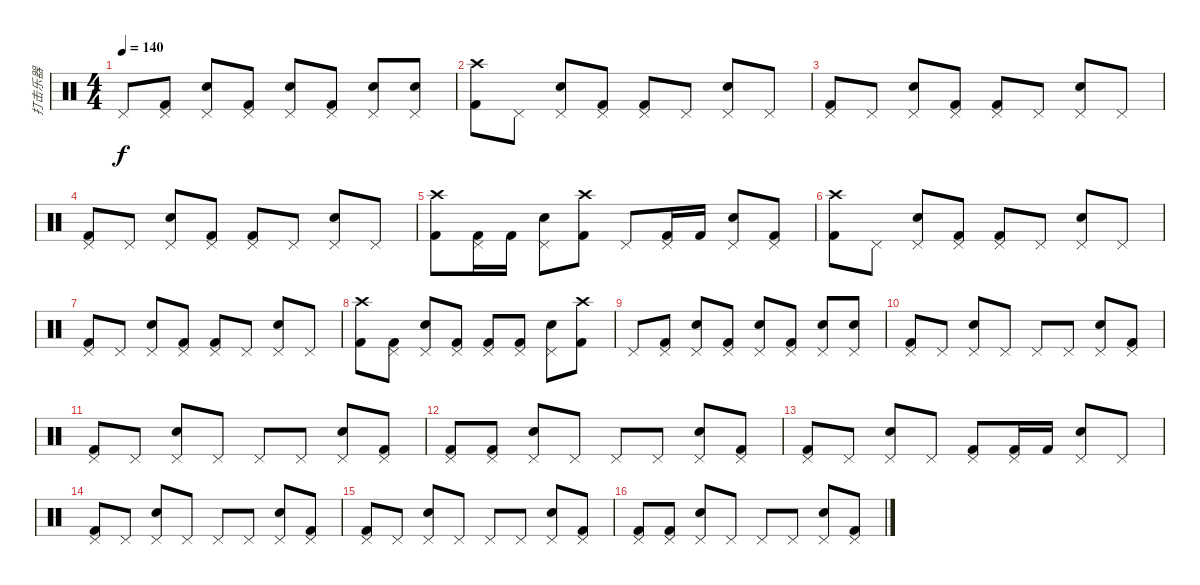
\track ("打击乐器" "打击乐器") {instrument percussion}
\staff {score}
\articulation defaults
\ts (4 4)
\tempo 140
\clef neutral
\ks c "Pedal Hi-Hat (hit)".8{dy f}
("Pedal Hi-Hat (hit)" "Kick (hit) 2").8 ("Pedal Hi-Hat (hit)" "Electric Snare (hit)").8 ("Pedal Hi-Hat (hit)" "Kick (hit) 2").8 ("Pedal Hi-Hat (hit)" "Electric Snare (hit)").8 ("Pedal Hi-Hat (hit)" "Kick (hit) 2").8 ("Pedal Hi-Hat (hit)" "Electric Snare (hit)").8 ("Pedal Hi-Hat (hit)" "Electric Snare (hit)").8 |
("Crash high (hit)" "Kick (hit) 2").8 "Pedal Hi-Hat (hit)".8 ("Pedal Hi-Hat (hit)" "Electric Snare (hit)").8 ("Pedal Hi-Hat (hit)" "Kick (hit) 2").8 ("Pedal Hi-Hat (hit)" "Kick (hit) 2").8 "Pedal Hi-Hat (hit)".8 ("Pedal Hi-Hat (hit)" "Electric Snare (hit)").8 "Pedal Hi-Hat (hit)".8 |
("Pedal Hi-Hat (hit)" "Kick (hit) 2").8 "Pedal Hi-Hat (hit)".8 ("Pedal Hi-Hat (hit)" "Electric Snare (hit)").8 ("Pedal Hi-Hat (hit)" "Kick (hit) 2").8 ("Pedal Hi-Hat (hit)" "Kick (hit) 2").8 "Pedal Hi-Hat (hit)".8 ("Pedal Hi-Hat (hit)" "Electric Snare (hit)").8 "Pedal Hi-Hat (hit)".8 |
("Pedal Hi-Hat (hit)" "Kick (hit) 2").8 "Pedal Hi-Hat (hit)".8 ("Pedal Hi-Hat (hit)" "Electric Snare (hit)").8 ("Pedal Hi-Hat (hit)" "Kick (hit) 2").8 ("Pedal Hi-Hat (hit)" "Kick (hit) 2").8 "Pedal Hi-Hat (hit)".8 ("Pedal Hi-Hat (hit)" "Electric Snare (hit)").8 "Pedal Hi-Hat (hit)".8 |
("Crash high (hit)" "Kick (hit) 2").8 ("Pedal Hi-Hat (hit)" "Kick (hit) 2").16 "Kick (hit) 2".16 ("Pedal Hi-Hat (hit)" "Electric Snare (hit)").8 ("Crash high (hit)" "Kick (hit) 2").8 "Pedal Hi-Hat (hit)".8 ("Pedal Hi-Hat (hit)" "Kick (hit) 2").16 "Kick (hit) 2".16 ("Pedal Hi-Hat (hit)" "Electric Snare (hit)").8 ("Pedal Hi-Hat (hit)" "Kick (hit) 2").8 |
("Crash high (hit)" "Kick (hit) 2").8 "Pedal Hi-Hat (hit)".8 ("Pedal Hi-Hat (hit)" "Electric Snare (hit)").8 ("Pedal Hi-Hat (hit)" "Kick (hit) 2").8 ("Pedal Hi-Hat (hit)" "Kick (hit) 2").8 "Pedal Hi-Hat (hit)".8 ("Pedal Hi-Hat (hit)" "Electric Snare (hit)").8 "Pedal Hi-Hat (hit)".8 |
("Pedal Hi-Hat (hit)" "Kick (hit) 2").8 "Pedal Hi-Hat (hit)".8 ("Pedal Hi-Hat (hit)" "Electric Snare (hit)").8 ("Pedal Hi-Hat (hit)" "Kick (hit) 2").8 ("Pedal Hi-Hat (hit)" "Kick (hit) 2").8 "Pedal Hi-Hat (hit)".8 ("Pedal Hi-Hat (hit)" "Electric Snare (hit)").8 "Pedal Hi-Hat (hit)".8 |
("Crash high (hit)" "Kick (hit) 2").8 ("Pedal Hi-Hat (hit)" "Kick (hit) 2").8 ("Pedal Hi-Hat (hit)" "Electric Snare (hit)").8 ("Pedal Hi-Hat (hit)" "Kick (hit) 2").8 ("Pedal Hi-Hat (hit)" "Kick (hit) 2").8 ("Pedal Hi-Hat (hit)" "Kick (hit) 2").8 ("Pedal Hi-Hat (hit)" "Electric Snare (hit)").8 ("Crash high (hit)" "Kick (hit) 2").8 |
"Pedal Hi-Hat (hit)".8 ("Pedal Hi-Hat (hit)" "Kick (hit) 2").8 ("Pedal Hi-Hat (hit)" "Electric Snare (hit)").8 ("Pedal Hi-Hat (hit)" "Kick (hit) 2").8 ("Pedal Hi-Hat (hit)" "Electric Snare (hit)").8 ("Pedal Hi-Hat (hit)" "Kick (hit) 2").8 ("Pedal Hi-Hat (hit)" "Electric Snare (hit)").8 ("Pedal Hi-Hat (hit)" "Electric Snare (hit)").8 |
("Pedal Hi-Hat (hit)" "Kick (hit) 2").8 "Pedal Hi-Hat (hit)".8 ("Pedal Hi-Hat (hit)" "Electric Snare (hit)").8 "Pedal Hi-Hat (hit)".8 "Pedal Hi-Hat (hit)".8 "Pedal Hi-Hat (hit)".8 ("Pedal Hi-Hat (hit)" "Electric Snare (hit)").8 ("Pedal Hi-Hat (hit)" "Kick (hit) 2").8 |
("Pedal Hi-Hat (hit)" "Kick (hit) 2").8 "Pedal Hi-Hat (hit)".8 ("Pedal Hi-Hat (hit)" "Electric Snare (hit)").8 "Pedal Hi-Hat (hit)".8 "Pedal Hi-Hat (hit)".8 "Pedal Hi-Hat (hit)".8 ("Pedal Hi-Hat (hit)" "Electric Snare (hit)").8 ("Pedal Hi-Hat (hit)" "Kick (hit) 2").8 |
("Pedal Hi-Hat (hit)" "Kick (hit) 2").8 ("Pedal Hi-Hat (hit)" "Kick (hit) 2").8 ("Pedal Hi-Hat (hit)" "Electric Snare (hit)").8 "Pedal Hi-Hat (hit)".8 "Pedal Hi-Hat (hit)".8 "Pedal Hi-Hat (hit)".8 ("Pedal Hi-Hat (hit)" "Electric Snare (hit)").8 ("Pedal Hi-Hat (hit)" "Kick (hit) 2").8 |
("Pedal Hi-Hat (hit)" "Kick (hit) 2").8 "Pedal Hi-Hat (hit)".8 ("Pedal Hi-Hat (hit)" "Electric Snare (hit)").8 "Pedal Hi-Hat (hit)".8 ("Pedal Hi-Hat (hit)" "Kick (hit) 2").8 ("Pedal Hi-Hat (hit)" "Kick (hit) 2").16 "Kick (hit) 2".16 ("Pedal Hi-Hat (hit)" "Electric Snare (hit)").8 "Pedal Hi-Hat (hit)".8 |
("Pedal Hi-Hat (hit)" "Kick (hit) 2").8 "Pedal Hi-Hat (hit)".8 ("Pedal Hi-Hat (hit)" "Electric Snare (hit)").8 "Pedal Hi-Hat (hit)".8 "Pedal Hi-Hat (hit)".8 "Pedal Hi-Hat (hit)".8 ("Pedal Hi-Hat (hit)" "Electric Snare (hit)").8 ("Pedal Hi-Hat (hit)" "Kick (hit) 2").8 |
("Pedal Hi-Hat (hit)" "Kick (hit) 2").8 "Pedal Hi-Hat (hit)".8 ("Pedal Hi-Hat (hit)" "Electric Snare (hit)").8 "Pedal Hi-Hat (hit)".8 "Pedal Hi-Hat (hit)".8 "Pedal Hi-Hat (hit)".8 ("Pedal Hi-Hat (hit)" "Electric Snare (hit)").8 ("Pedal Hi-Hat (hit)" "Kick (hit) 2").8 |
("Pedal Hi-Hat (hit)" "Kick (hit) 2").8 ("Pedal Hi-Hat (hit)" "Kick (hit) 2").8 ("Pedal Hi-Hat (hit)" "Electric Snare (hit)").8 "Pedal Hi-Hat (hit)".8 "Pedal Hi-Hat (hit)".8 "Pedal Hi-Hat (hit)".8 ("Pedal Hi-Hat (hit)" "Electric Snare (hit)").8 ("Pedal Hi-Hat (hit)" "Kick (hit) 2").8
